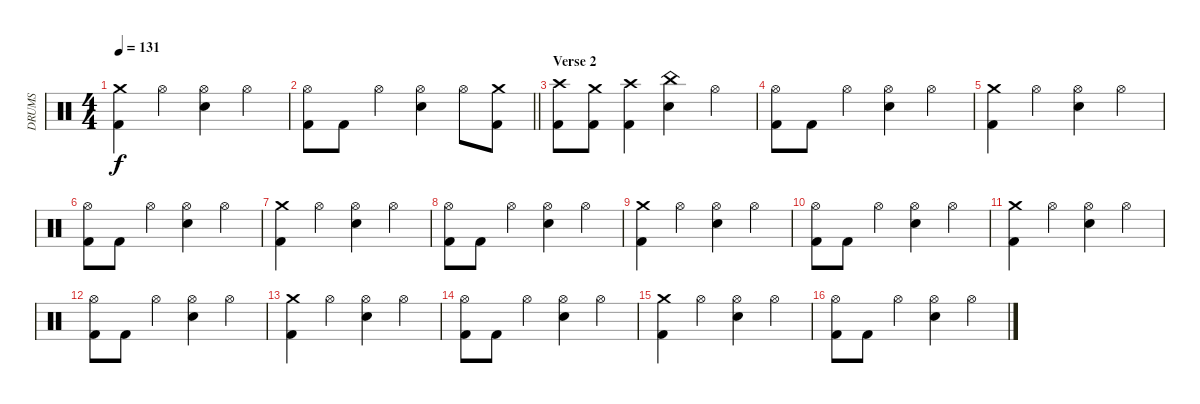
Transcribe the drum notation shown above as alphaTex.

\track ("DRUMS" "DRUMS") {instrument percussion}
\staff {score}
\articulation defaults
\ts (4 4)
\tempo 131
\clef neutral
\ks c
("Crash medium (hit)" "Kick (hit) 2").4{dy f} "Hi-Hat (open)".4 ("Hi-Hat (open)" "Snare (hit) 2").4 "Hi-Hat (open)".4 |
\barLineRight lightlight
("Hi-Hat (open)" "Kick (hit) 2").8 "Kick (hit) 2".8 "Hi-Hat (open)".4 ("Hi-Hat (open)" "Snare (hit) 2").4 "Hi-Hat (open)".8 ("Crash medium (hit)" "Kick (hit) 2").8 |
\section ("" "Verse 2")
("Crash high (hit)" "Kick (hit) 2").8 ("Crash medium (hit)" "Kick (hit) 2").8 ("Crash high (hit)" "Kick (hit) 2").4 ("China (hit)" "Snare (hit) 2").4 "Hi-Hat (open)".4 |
("Hi-Hat (open)" "Kick (hit) 2").8 "Kick (hit) 2".8 "Hi-Hat (open)".4 ("Hi-Hat (open)" "Snare (hit) 2").4 "Hi-Hat (open)".4 |
("Crash medium (hit)" "Kick (hit) 2").4 "Hi-Hat (open)".4 ("Hi-Hat (open)" "Snare (hit) 2").4 "Hi-Hat (open)".4 |
("Hi-Hat (open)" "Kick (hit) 2").8 "Kick (hit) 2".8 "Hi-Hat (open)".4 ("Hi-Hat (open)" "Snare (hit) 2").4 "Hi-Hat (open)".4 |
("Crash medium (hit)" "Kick (hit) 2").4 "Hi-Hat (open)".4 ("Hi-Hat (open)" "Snare (hit) 2").4 "Hi-Hat (open)".4 |
("Hi-Hat (open)" "Kick (hit) 2").8 "Kick (hit) 2".8 "Hi-Hat (open)".4 ("Hi-Hat (open)" "Snare (hit) 2").4 "Hi-Hat (open)".4 |
("Crash medium (hit)" "Kick (hit) 2").4 "Hi-Hat (open)".4 ("Hi-Hat (open)" "Snare (hit) 2").4 "Hi-Hat (open)".4 |
("Hi-Hat (open)" "Kick (hit) 2").8 "Kick (hit) 2".8 "Hi-Hat (open)".4 ("Hi-Hat (open)" "Snare (hit) 2").4 "Hi-Hat (open)".4 |
("Crash medium (hit)" "Kick (hit) 2").4 "Hi-Hat (open)".4 ("Hi-Hat (open)" "Snare (hit) 2").4 "Hi-Hat (open)".4 |
("Hi-Hat (open)" "Kick (hit) 2").8 "Kick (hit) 2".8 "Hi-Hat (open)".4 ("Hi-Hat (open)" "Snare (hit) 2").4 "Hi-Hat (open)".4 |
("Crash medium (hit)" "Kick (hit) 2").4 "Hi-Hat (open)".4 ("Hi-Hat (open)" "Snare (hit) 2").4 "Hi-Hat (open)".4 |
("Hi-Hat (open)" "Kick (hit) 2").8 "Kick (hit) 2".8 "Hi-Hat (open)".4 ("Hi-Hat (open)" "Snare (hit) 2").4 "Hi-Hat (open)".4 |
("Crash medium (hit)" "Kick (hit) 2").4 "Hi-Hat (open)".4 ("Hi-Hat (open)" "Snare (hit) 2").4 "Hi-Hat (open)".4 |
("Hi-Hat (open)" "Kick (hit) 2").8 "Kick (hit) 2".8 "Hi-Hat (open)".4 ("Hi-Hat (open)" "Snare (hit) 2").4 "Hi-Hat (open)".4
